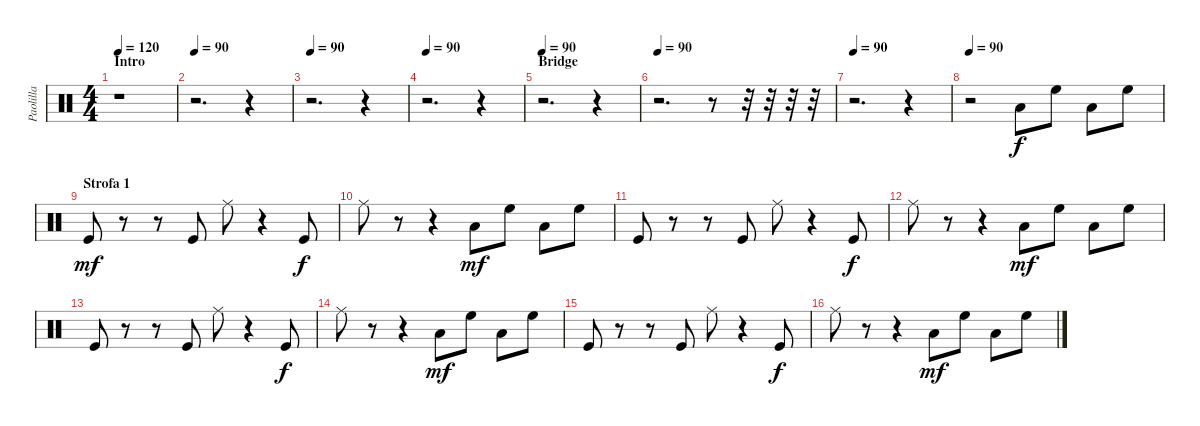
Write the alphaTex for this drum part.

\track ("Paolilla" "Paolilla") {instrument percussion}
\staff {score}
\articulation defaults
\ts (4 4)
\section ("" "Intro")
\tempo 120
\tempo 90
\tempo 120
\clef neutral
\ks c
r.1{dy f} |
\tempo 90
r.2{d} r.4 |
\tempo 90
r.2{d} r.4 |
\tempo 90
r.2{d} r.4 |
\section ("" "Bridge")
\tempo 90
r.2{d} r.4 |
\tempo 90
r.2{d} r.8 r.32 r.32 r.32 r.32 |
\tempo 90
r.2{d} r.4 |
\tempo 90
r.2 "Low Tom (hit)".8 "High Floor Tom (hit)".8 "Low Tom (hit)".8 "High Floor Tom (hit)".8 |
\section ("" "Strofa 1")
"Kick (hit)".8{dy mf} r.8 r.8 "Kick (hit)".8 "Ride (middle)".8 r.4 "Kick (hit)".8{dy f} |
"Ride (middle)".8 r.8 r.4 "Low Tom (hit)".8{dy mf} "High Floor Tom (hit)".8 "Low Tom (hit)".8 "High Floor Tom (hit)".8 |
"Kick (hit)".8 r.8 r.8 "Kick (hit)".8 "Ride (middle)".8 r.4 "Kick (hit)".8{dy f} |
"Ride (middle)".8 r.8 r.4 "Low Tom (hit)".8{dy mf} "High Floor Tom (hit)".8 "Low Tom (hit)".8 "High Floor Tom (hit)".8 |
"Kick (hit)".8 r.8 r.8 "Kick (hit)".8 "Ride (middle)".8 r.4 "Kick (hit)".8{dy f} |
"Ride (middle)".8 r.8 r.4 "Low Tom (hit)".8{dy mf} "High Floor Tom (hit)".8 "Low Tom (hit)".8 "High Floor Tom (hit)".8 |
"Kick (hit)".8 r.8 r.8 "Kick (hit)".8 "Ride (middle)".8 r.4 "Kick (hit)".8{dy f} |
"Ride (middle)".8 r.8 r.4 "Low Tom (hit)".8{dy mf} "High Floor Tom (hit)".8 "Low Tom (hit)".8 "High Floor Tom (hit)".8
